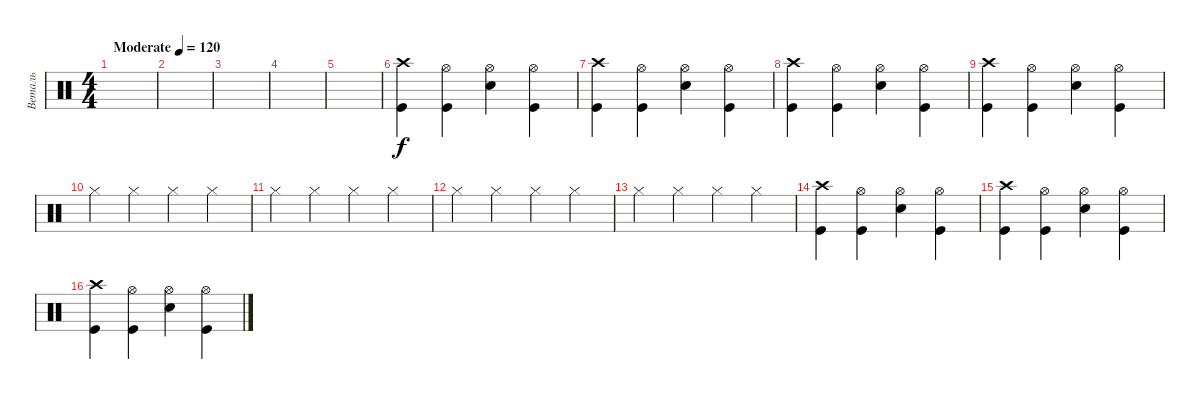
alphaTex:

\track ("Веталь" "Веталь") {instrument percussion}
\staff {score}
\articulation defaults
\ts (4 4)
\tempo (120 "Moderate")
\clef neutral
\ks c
|
|
|
|
|
("Crash high (hit)" "Kick (hit)").4 ("Hi-Hat (open)" "Kick (hit)").4 ("Hi-Hat (open)" "Snare (hit) 2").4 ("Hi-Hat (open)" "Kick (hit)").4 |
("Crash high (hit)" "Kick (hit)").4 ("Hi-Hat (open)" "Kick (hit)").4 ("Hi-Hat (open)" "Snare (hit) 2").4 ("Hi-Hat (open)" "Kick (hit)").4 |
("Crash high (hit)" "Kick (hit)").4 ("Hi-Hat (open)" "Kick (hit)").4 ("Hi-Hat (open)" "Snare (hit) 2").4 ("Hi-Hat (open)" "Kick (hit)").4 |
("Crash high (hit)" "Kick (hit)").4 ("Hi-Hat (open)" "Kick (hit)").4 ("Hi-Hat (open)" "Snare (hit) 2").4 ("Hi-Hat (open)" "Kick (hit)").4 |
"Hi-Hat (closed)".4 "Hi-Hat (closed)".4 "Hi-Hat (closed)".4 "Hi-Hat (closed)".4 |
"Hi-Hat (closed)".4 "Hi-Hat (closed)".4 "Hi-Hat (closed)".4 "Hi-Hat (closed)".4 |
"Hi-Hat (closed)".4 "Hi-Hat (closed)".4 "Hi-Hat (closed)".4 "Hi-Hat (closed)".4 |
"Hi-Hat (closed)".4 "Hi-Hat (closed)".4 "Hi-Hat (closed)".4 "Hi-Hat (closed)".4 |
("Crash high (hit)" "Kick (hit)").4 ("Hi-Hat (open)" "Kick (hit)").4 ("Hi-Hat (open)" "Snare (hit) 2").4 ("Hi-Hat (open)" "Kick (hit)").4 |
("Crash high (hit)" "Kick (hit)").4 ("Hi-Hat (open)" "Kick (hit)").4 ("Hi-Hat (open)" "Snare (hit) 2").4 ("Hi-Hat (open)" "Kick (hit)").4 |
("Crash high (hit)" "Kick (hit)").4 ("Hi-Hat (open)" "Kick (hit)").4 ("Hi-Hat (open)" "Snare (hit) 2").4 ("Hi-Hat (open)" "Kick (hit)").4
